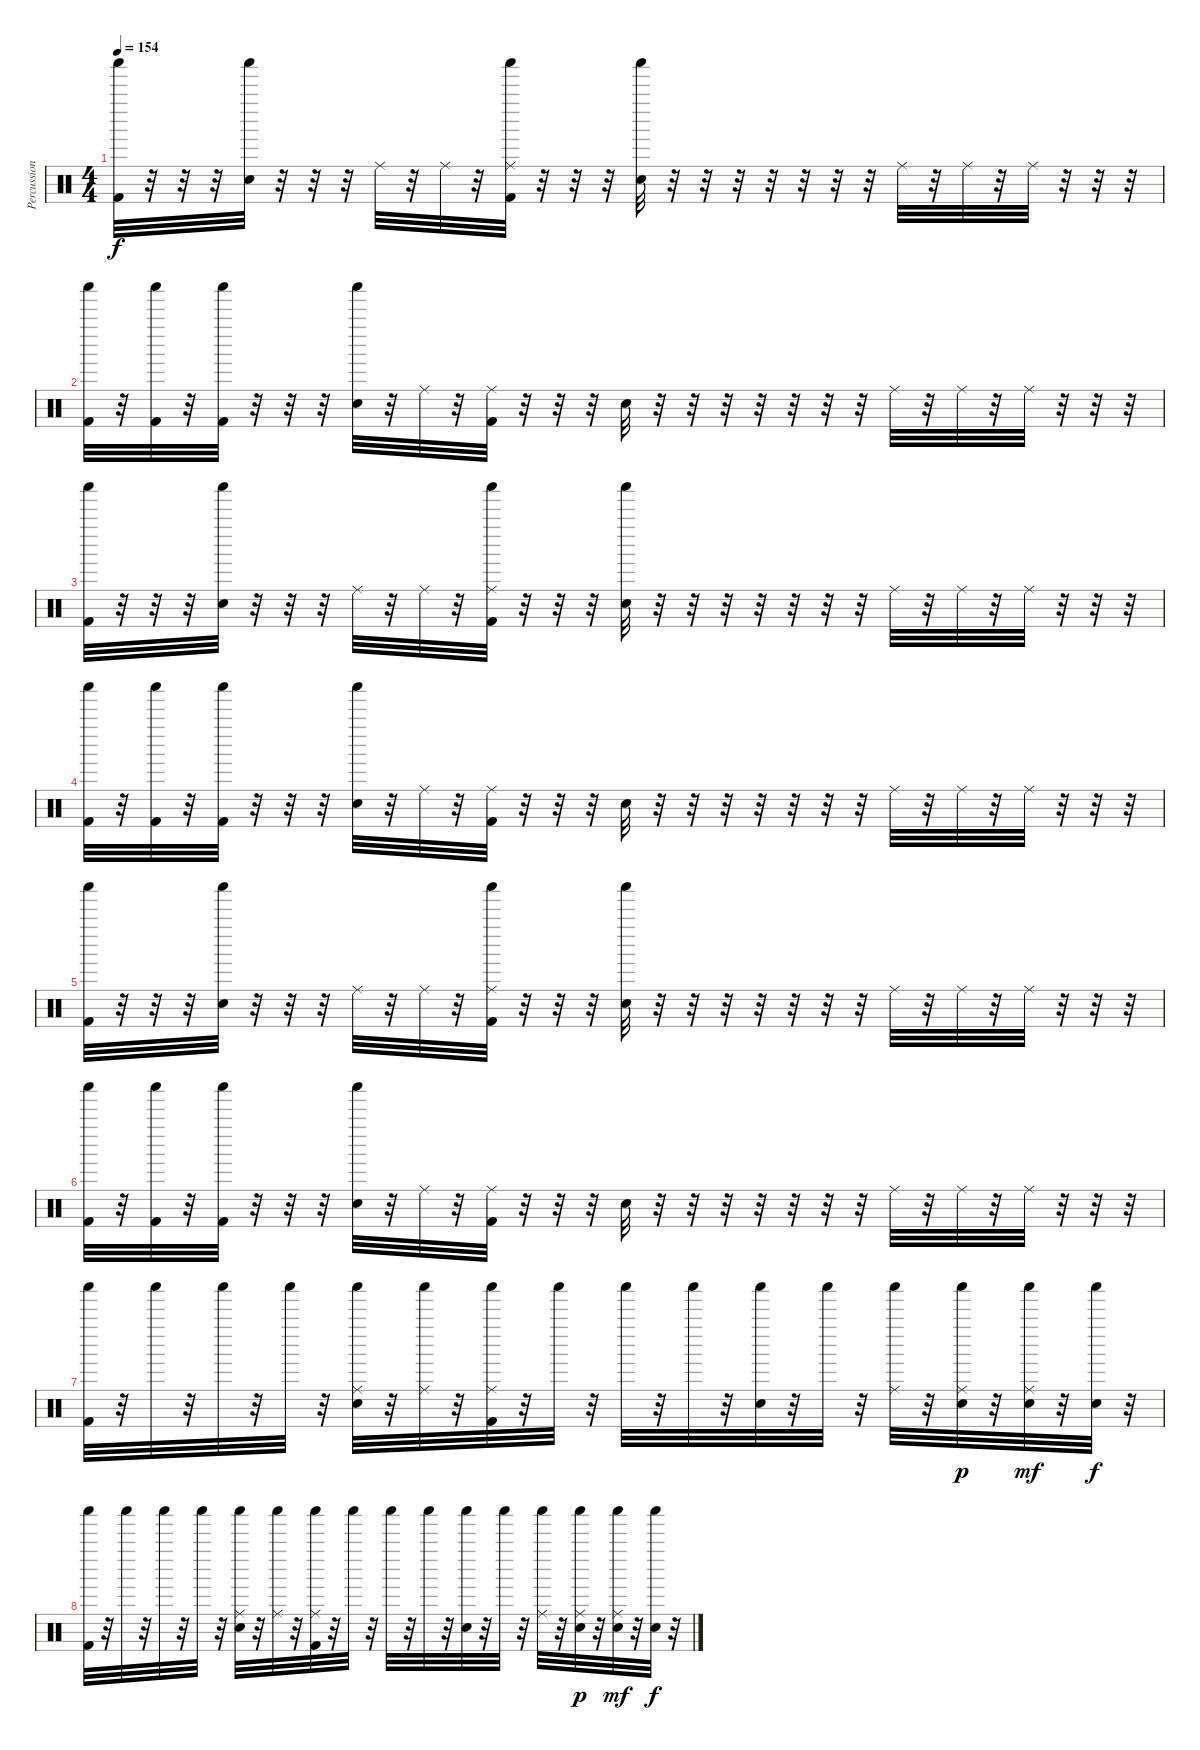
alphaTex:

\track ("Percussion" "Percussion") {instrument percussion}
\staff {score}
\articulation defaults
\ts (4 4)
\tempo 154
\clef neutral
\ks c
("Shaker (hit)" "Kick (hit) 2").32{dy f} r.32 r.32 r.32 ("Shaker (hit)" "Snare (hit) 2").32 r.32 r.32 r.32 "Ride (middle)".32 r.32 "Ride (middle)".32 r.32 ("Shaker (hit)" "Kick (hit) 2" "Ride (middle)").32 r.32 r.32 r.32 ("Shaker (hit)" "Snare (hit) 2").32 r.32 r.32 r.32 r.32 r.32 r.32 r.32 "Ride (middle)".32 r.32 "Ride (middle)".32 r.32 "Ride (middle)".32 r.32 r.32 r.32 |
("Shaker (hit)" "Kick (hit) 2").32 r.32 ("Shaker (hit)" "Kick (hit) 2").32 r.32 ("Shaker (hit)" "Kick (hit) 2").32 r.32 r.32 r.32 ("Shaker (hit)" "Snare (hit) 2").32 r.32 "Ride (middle)".32 r.32 ("Kick (hit) 2" "Ride (middle)").32 r.32 r.32 r.32 "Snare (hit) 2".32 r.32 r.32 r.32 r.32 r.32 r.32 r.32 "Ride (middle)".32 r.32 "Ride (middle)".32 r.32 "Ride (middle)".32 r.32 r.32 r.32 |
("Shaker (hit)" "Kick (hit) 2").32 r.32 r.32 r.32 ("Shaker (hit)" "Snare (hit) 2").32 r.32 r.32 r.32 "Ride (middle)".32 r.32 "Ride (middle)".32 r.32 ("Shaker (hit)" "Kick (hit) 2" "Ride (middle)").32 r.32 r.32 r.32 ("Shaker (hit)" "Snare (hit) 2").32 r.32 r.32 r.32 r.32 r.32 r.32 r.32 "Ride (middle)".32 r.32 "Ride (middle)".32 r.32 "Ride (middle)".32 r.32 r.32 r.32 |
("Shaker (hit)" "Kick (hit) 2").32 r.32 ("Shaker (hit)" "Kick (hit) 2").32 r.32 ("Shaker (hit)" "Kick (hit) 2").32 r.32 r.32 r.32 ("Shaker (hit)" "Snare (hit) 2").32 r.32 "Ride (middle)".32 r.32 ("Kick (hit) 2" "Ride (middle)").32 r.32 r.32 r.32 "Snare (hit) 2".32 r.32 r.32 r.32 r.32 r.32 r.32 r.32 "Ride (middle)".32 r.32 "Ride (middle)".32 r.32 "Ride (middle)".32 r.32 r.32 r.32 |
("Shaker (hit)" "Kick (hit) 2").32 r.32 r.32 r.32 ("Shaker (hit)" "Snare (hit) 2").32 r.32 r.32 r.32 "Ride (middle)".32 r.32 "Ride (middle)".32 r.32 ("Shaker (hit)" "Kick (hit) 2" "Ride (middle)").32 r.32 r.32 r.32 ("Shaker (hit)" "Snare (hit) 2").32 r.32 r.32 r.32 r.32 r.32 r.32 r.32 "Ride (middle)".32 r.32 "Ride (middle)".32 r.32 "Ride (middle)".32 r.32 r.32 r.32 |
("Shaker (hit)" "Kick (hit) 2").32 r.32 ("Shaker (hit)" "Kick (hit) 2").32 r.32 ("Shaker (hit)" "Kick (hit) 2").32 r.32 r.32 r.32 ("Shaker (hit)" "Snare (hit) 2").32 r.32 "Ride (middle)".32 r.32 ("Kick (hit) 2" "Ride (middle)").32 r.32 r.32 r.32 "Snare (hit) 2".32 r.32 r.32 r.32 r.32 r.32 r.32 r.32 "Ride (middle)".32 r.32 "Ride (middle)".32 r.32 "Ride (middle)".32 r.32 r.32 r.32 |
("Shaker (hit)" "Kick (hit) 2").32 r.32 "Shaker (hit)".32 r.32 "Shaker (hit)".32 r.32 "Shaker (hit)".32 r.32 ("Shaker (hit)" "Snare (hit) 2" "Ride (middle)").32 r.32 ("Shaker (hit)" "Ride (middle)").32 r.32 ("Shaker (hit)" "Kick (hit) 2" "Ride (middle)").32 r.32 "Shaker (hit)".32 r.32 "Shaker (hit)".32 r.32 "Shaker (hit)".32 r.32 ("Shaker (hit)" "Snare (hit) 2").32 r.32 "Shaker (hit)".32 r.32 ("Shaker (hit)" "Ride (middle)").32 r.32 ("Shaker (hit)" "Snare (hit) 2" "Ride (middle)").32{dy p} r.32 ("Shaker (hit)" "Snare (hit) 2" "Ride (middle)").32{dy mf} r.32 ("Shaker (hit)" "Snare (hit) 2").32{dy f} r.32 |
("Shaker (hit)" "Kick (hit) 2").32 r.32 "Shaker (hit)".32 r.32 "Shaker (hit)".32 r.32 "Shaker (hit)".32 r.32 ("Shaker (hit)" "Snare (hit) 2" "Ride (middle)").32 r.32 ("Shaker (hit)" "Ride (middle)").32 r.32 ("Shaker (hit)" "Kick (hit) 2" "Ride (middle)").32 r.32 "Shaker (hit)".32 r.32 "Shaker (hit)".32 r.32 "Shaker (hit)".32 r.32 ("Shaker (hit)" "Snare (hit) 2").32 r.32 "Shaker (hit)".32 r.32 ("Shaker (hit)" "Ride (middle)").32 r.32 ("Shaker (hit)" "Snare (hit) 2" "Ride (middle)").32{dy p} r.32 ("Shaker (hit)" "Snare (hit) 2" "Ride (middle)").32{dy mf} r.32 ("Shaker (hit)" "Snare (hit) 2").32{dy f} r.32
